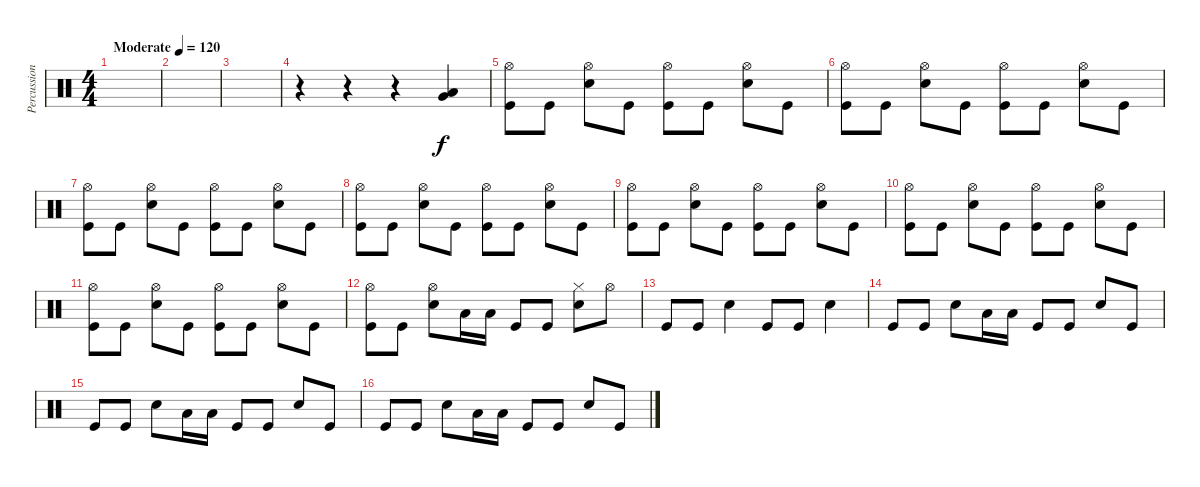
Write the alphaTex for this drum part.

\track ("Percussion" "Percussion") {instrument percussion}
\staff {score}
\articulation defaults
\ts (4 4)
\tempo (120 "Moderate")
\clef neutral
\ks c
|
|
|
r.4 r.4 r.4 ("Very Low Tom (hit)" "Low Floor Tom (hit)").4 |
("Hi-Hat (open)" "Kick (hit)").8 "Kick (hit)".8 ("Hi-Hat (open)" "Electric Snare (hit)").8 "Kick (hit)".8 ("Hi-Hat (open)" "Kick (hit)").8 "Kick (hit)".8 ("Hi-Hat (open)" "Electric Snare (hit)").8 "Kick (hit)".8 |
("Hi-Hat (open)" "Kick (hit)").8 "Kick (hit)".8 ("Hi-Hat (open)" "Electric Snare (hit)").8 "Kick (hit)".8 ("Hi-Hat (open)" "Kick (hit)").8 "Kick (hit)".8 ("Hi-Hat (open)" "Electric Snare (hit)").8 "Kick (hit)".8 |
("Hi-Hat (open)" "Kick (hit)").8 "Kick (hit)".8 ("Hi-Hat (open)" "Electric Snare (hit)").8 "Kick (hit)".8 ("Hi-Hat (open)" "Kick (hit)").8 "Kick (hit)".8 ("Hi-Hat (open)" "Electric Snare (hit)").8 "Kick (hit)".8 |
("Hi-Hat (open)" "Kick (hit)").8 "Kick (hit)".8 ("Hi-Hat (open)" "Electric Snare (hit)").8 "Kick (hit)".8 ("Hi-Hat (open)" "Kick (hit)").8 "Kick (hit)".8 ("Hi-Hat (open)" "Electric Snare (hit)").8 "Kick (hit)".8 |
("Hi-Hat (open)" "Kick (hit)").8 "Kick (hit)".8 ("Hi-Hat (open)" "Electric Snare (hit)").8 "Kick (hit)".8 ("Hi-Hat (open)" "Kick (hit)").8 "Kick (hit)".8 ("Hi-Hat (open)" "Electric Snare (hit)").8 "Kick (hit)".8 |
("Hi-Hat (open)" "Kick (hit)").8 "Kick (hit)".8 ("Hi-Hat (open)" "Electric Snare (hit)").8 "Kick (hit)".8 ("Hi-Hat (open)" "Kick (hit)").8 "Kick (hit)".8 ("Hi-Hat (open)" "Electric Snare (hit)").8 "Kick (hit)".8 |
("Hi-Hat (open)" "Kick (hit)").8 "Kick (hit)".8 ("Hi-Hat (open)" "Electric Snare (hit)").8 "Kick (hit)".8 ("Hi-Hat (open)" "Kick (hit)").8 "Kick (hit)".8 ("Hi-Hat (open)" "Electric Snare (hit)").8 "Kick (hit)".8 |
("Hi-Hat (open)" "Kick (hit)").8 "Kick (hit)".8 ("Hi-Hat (open)" "Electric Snare (hit)").8 "Low Floor Tom (hit)".16 "Low Floor Tom (hit)".16 "Kick (hit)".8 "Kick (hit)".8 ("Hi-Hat (closed)" "Electric Snare (hit)").8 "Hi-Hat (open)".8 |
"Kick (hit)".8 "Kick (hit)".8 "Electric Snare (hit)".4 "Kick (hit)".8 "Kick (hit)".8 "Electric Snare (hit)".4 |
"Kick (hit)".8 "Kick (hit)".8 "Electric Snare (hit)".8 "Low Floor Tom (hit)".16 "Low Floor Tom (hit)".16 "Kick (hit)".8 "Kick (hit)".8 "Electric Snare (hit)".8 "Kick (hit)".8 |
"Kick (hit)".8 "Kick (hit)".8 "Electric Snare (hit)".8 "Low Floor Tom (hit)".16 "Low Floor Tom (hit)".16 "Kick (hit)".8 "Kick (hit)".8 "Electric Snare (hit)".8 "Kick (hit)".8 |
"Kick (hit)".8 "Kick (hit)".8 "Electric Snare (hit)".8 "Low Floor Tom (hit)".16 "Low Floor Tom (hit)".16 "Kick (hit)".8 "Kick (hit)".8 "Electric Snare (hit)".8 "Kick (hit)".8
